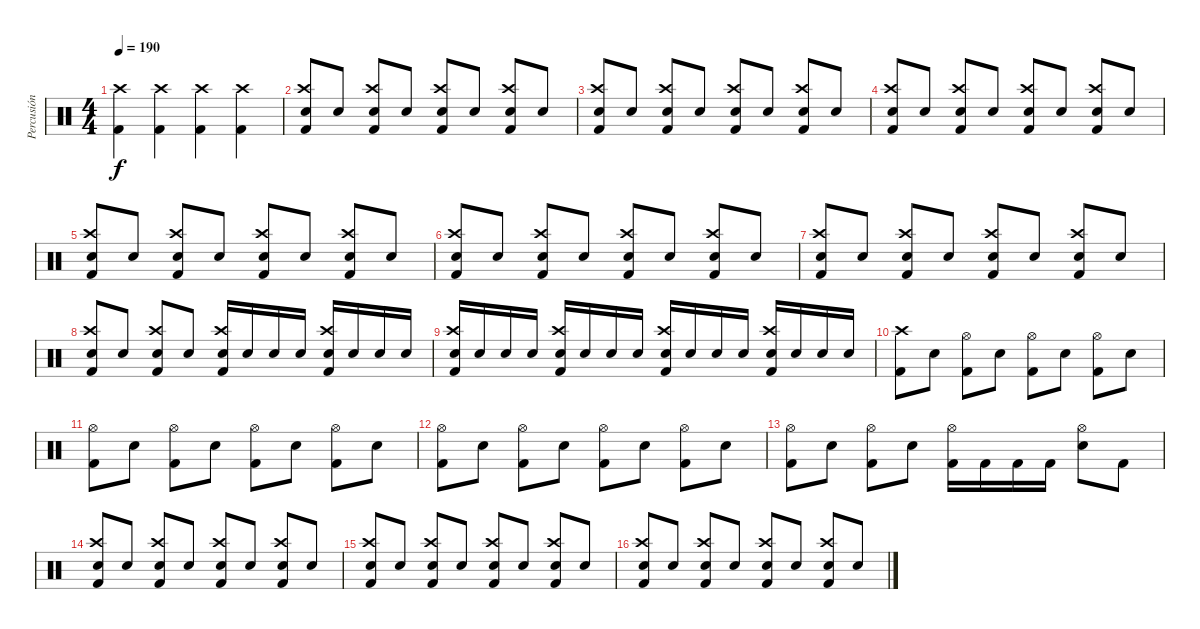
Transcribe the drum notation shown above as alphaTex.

\track ("Percusión" "Percusión") {instrument percussion}
\staff {score}
\articulation defaults
\ts (4 4)
\tempo 190
\clef neutral
\ks c
("Kick (hit) 2" "Crash high (hit)").4{dy f} ("Kick (hit) 2" "Crash high (hit)").4 ("Kick (hit) 2" "Crash high (hit)").4 ("Kick (hit) 2" "Crash high (hit)").4 |
("Kick (hit) 2" "Snare (hit) 2" "Crash high (hit)").8 "Snare (hit) 2".8 ("Kick (hit) 2" "Snare (hit) 2" "Crash high (hit)").8 "Snare (hit) 2".8 ("Kick (hit) 2" "Snare (hit) 2" "Crash high (hit)").8 "Snare (hit) 2".8 ("Kick (hit) 2" "Snare (hit) 2" "Crash high (hit)").8 "Snare (hit) 2".8 |
("Kick (hit) 2" "Snare (hit) 2" "Crash high (hit)").8 "Snare (hit) 2".8 ("Kick (hit) 2" "Snare (hit) 2" "Crash high (hit)").8 "Snare (hit) 2".8 ("Kick (hit) 2" "Snare (hit) 2" "Crash high (hit)").8 "Snare (hit) 2".8 ("Kick (hit) 2" "Snare (hit) 2" "Crash high (hit)").8 "Snare (hit) 2".8 |
("Kick (hit) 2" "Snare (hit) 2" "Crash high (hit)").8 "Snare (hit) 2".8 ("Kick (hit) 2" "Snare (hit) 2" "Crash high (hit)").8 "Snare (hit) 2".8 ("Kick (hit) 2" "Snare (hit) 2" "Crash high (hit)").8 "Snare (hit) 2".8 ("Kick (hit) 2" "Snare (hit) 2" "Crash high (hit)").8 "Snare (hit) 2".8 |
("Kick (hit) 2" "Snare (hit) 2" "Crash high (hit)").8 "Snare (hit) 2".8 ("Kick (hit) 2" "Snare (hit) 2" "Crash high (hit)").8 "Snare (hit) 2".8 ("Kick (hit) 2" "Snare (hit) 2" "Crash high (hit)").8 "Snare (hit) 2".8 ("Kick (hit) 2" "Snare (hit) 2" "Crash high (hit)").8 "Snare (hit) 2".8 |
("Kick (hit) 2" "Snare (hit) 2" "Crash high (hit)").8 "Snare (hit) 2".8 ("Kick (hit) 2" "Snare (hit) 2" "Crash high (hit)").8 "Snare (hit) 2".8 ("Kick (hit) 2" "Snare (hit) 2" "Crash high (hit)").8 "Snare (hit) 2".8 ("Kick (hit) 2" "Snare (hit) 2" "Crash high (hit)").8 "Snare (hit) 2".8 |
("Kick (hit) 2" "Snare (hit) 2" "Crash high (hit)").8 "Snare (hit) 2".8 ("Kick (hit) 2" "Snare (hit) 2" "Crash high (hit)").8 "Snare (hit) 2".8 ("Kick (hit) 2" "Snare (hit) 2" "Crash high (hit)").8 "Snare (hit) 2".8 ("Kick (hit) 2" "Snare (hit) 2" "Crash high (hit)").8 "Snare (hit) 2".8 |
("Kick (hit) 2" "Snare (hit) 2" "Crash high (hit)").8 "Snare (hit) 2".8 ("Kick (hit) 2" "Snare (hit) 2" "Crash high (hit)").8 "Snare (hit) 2".8 ("Kick (hit) 2" "Snare (hit) 2" "Crash high (hit)").16 "Snare (hit) 2".16 "Snare (hit) 2".16 "Snare (hit) 2".16 ("Kick (hit) 2" "Snare (hit) 2" "Crash high (hit)").16 "Snare (hit) 2".16 "Snare (hit) 2".16 "Snare (hit) 2".16 |
("Kick (hit) 2" "Snare (hit) 2" "Crash high (hit)").16 "Snare (hit) 2".16 "Snare (hit) 2".16 "Snare (hit) 2".16 ("Kick (hit) 2" "Snare (hit) 2" "Crash high (hit)").16 "Snare (hit) 2".16 "Snare (hit) 2".16 "Snare (hit) 2".16 ("Kick (hit) 2" "Snare (hit) 2" "Crash high (hit)").16 "Snare (hit) 2".16 "Snare (hit) 2".16 "Snare (hit) 2".16 ("Kick (hit) 2" "Snare (hit) 2" "Crash high (hit)").16 "Snare (hit) 2".16 "Snare (hit) 2".16 "Snare (hit) 2".16 |
("Kick (hit) 2" "Crash high (hit)").8 "Snare (hit) 2".8 ("Kick (hit) 2" "Hi-Hat (open)").8 "Snare (hit) 2".8 ("Kick (hit) 2" "Hi-Hat (open)").8 "Snare (hit) 2".8 ("Kick (hit) 2" "Hi-Hat (open)").8 "Snare (hit) 2".8 |
("Kick (hit) 2" "Hi-Hat (open)").8 "Snare (hit) 2".8 ("Kick (hit) 2" "Hi-Hat (open)").8 "Snare (hit) 2".8 ("Kick (hit) 2" "Hi-Hat (open)").8 "Snare (hit) 2".8 ("Kick (hit) 2" "Hi-Hat (open)").8 "Snare (hit) 2".8 |
("Kick (hit) 2" "Hi-Hat (open)").8 "Snare (hit) 2".8 ("Kick (hit) 2" "Hi-Hat (open)").8 "Snare (hit) 2".8 ("Kick (hit) 2" "Hi-Hat (open)").8 "Snare (hit) 2".8 ("Kick (hit) 2" "Hi-Hat (open)").8 "Snare (hit) 2".8 |
("Kick (hit) 2" "Hi-Hat (open)").8 "Snare (hit) 2".8 ("Kick (hit) 2" "Hi-Hat (open)").8 "Snare (hit) 2".8 ("Kick (hit) 2" "Hi-Hat (open)").16 "Kick (hit) 2".16 "Kick (hit) 2".16 "Kick (hit) 2".16 ("Snare (hit) 2" "Hi-Hat (open)").8 "Kick (hit) 2".8 |
("Kick (hit) 2" "Snare (hit) 2" "Crash high (hit)").8 "Snare (hit) 2".8 ("Kick (hit) 2" "Snare (hit) 2" "Crash high (hit)").8 "Snare (hit) 2".8 ("Kick (hit) 2" "Snare (hit) 2" "Crash high (hit)").8 "Snare (hit) 2".8 ("Kick (hit) 2" "Snare (hit) 2" "Crash high (hit)").8 "Snare (hit) 2".8 |
("Kick (hit) 2" "Snare (hit) 2" "Crash high (hit)").8 "Snare (hit) 2".8 ("Kick (hit) 2" "Snare (hit) 2" "Crash high (hit)").8 "Snare (hit) 2".8 ("Kick (hit) 2" "Snare (hit) 2" "Crash high (hit)").8 "Snare (hit) 2".8 ("Kick (hit) 2" "Snare (hit) 2" "Crash high (hit)").8 "Snare (hit) 2".8 |
("Kick (hit) 2" "Snare (hit) 2" "Crash high (hit)").8 "Snare (hit) 2".8 ("Kick (hit) 2" "Snare (hit) 2" "Crash high (hit)").8 "Snare (hit) 2".8 ("Kick (hit) 2" "Snare (hit) 2" "Crash high (hit)").8 "Snare (hit) 2".8 ("Kick (hit) 2" "Snare (hit) 2" "Crash high (hit)").8 "Snare (hit) 2".8
